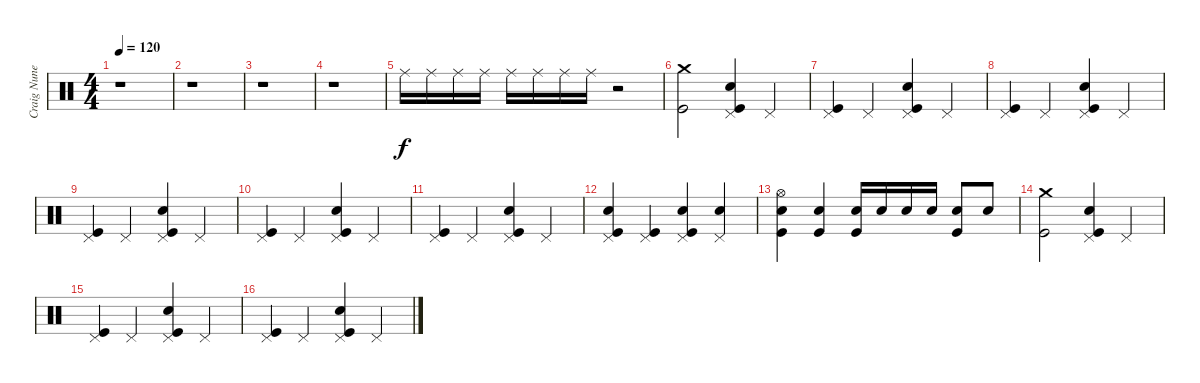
\track ("Craig Nunenmacher" "Craig Nune") {instrument percussion}
\staff {score}
\articulation defaults
\ts (4 4)
\tempo 120
\clef neutral
\ks c
r.1{dy f} |
r.1 |
r.1 |
r.1 |
"Ride (middle)".16 "Ride (middle)".16 "Ride (middle)".16 "Ride (middle)".16 "Ride (middle)".16 "Ride (middle)".16 "Ride (middle)".16 "Ride (middle)".16 r.2 |
("Crash medium (hit)" "Kick (hit)").2 ("Pedal Hi-Hat (hit)" "Snare (hit) 2" "Kick (hit)").4 "Pedal Hi-Hat (hit)".4 |
("Pedal Hi-Hat (hit)" "Kick (hit)").4 "Pedal Hi-Hat (hit)".4 ("Pedal Hi-Hat (hit)" "Snare (hit) 2" "Kick (hit)").4 "Pedal Hi-Hat (hit)".4 |
("Pedal Hi-Hat (hit)" "Kick (hit)").4 "Pedal Hi-Hat (hit)".4 ("Pedal Hi-Hat (hit)" "Snare (hit) 2" "Kick (hit)").4 "Pedal Hi-Hat (hit)".4 |
("Pedal Hi-Hat (hit)" "Kick (hit)").4 "Pedal Hi-Hat (hit)".4 ("Pedal Hi-Hat (hit)" "Snare (hit) 2" "Kick (hit)").4 "Pedal Hi-Hat (hit)".4 |
("Pedal Hi-Hat (hit)" "Kick (hit)").4 "Pedal Hi-Hat (hit)".4 ("Pedal Hi-Hat (hit)" "Snare (hit) 2" "Kick (hit)").4 "Pedal Hi-Hat (hit)".4 |
("Pedal Hi-Hat (hit)" "Kick (hit)").4 "Pedal Hi-Hat (hit)".4 ("Pedal Hi-Hat (hit)" "Snare (hit) 2" "Kick (hit)").4 "Pedal Hi-Hat (hit)".4 |
("Pedal Hi-Hat (hit)" "Snare (hit) 2" "Kick (hit)").4 ("Pedal Hi-Hat (hit)" "Kick (hit)").4 ("Pedal Hi-Hat (hit)" "Snare (hit) 2" "Kick (hit)").4 ("Pedal Hi-Hat (hit)" "Snare (hit) 2").4 |
("Hi-Hat (open)" "Snare (hit) 2" "Kick (hit)").4 ("Snare (hit) 2" "Kick (hit)").4 ("Snare (hit) 2" "Kick (hit)").16 "Snare (hit) 2".16 "Snare (hit) 2".16 "Snare (hit) 2".16 ("Snare (hit) 2" "Kick (hit)").8 "Snare (hit) 2".8 |
("Crash medium (hit)" "Kick (hit)").2 ("Pedal Hi-Hat (hit)" "Snare (hit) 2" "Kick (hit)").4 "Pedal Hi-Hat (hit)".4 |
("Pedal Hi-Hat (hit)" "Kick (hit)").4 "Pedal Hi-Hat (hit)".4 ("Pedal Hi-Hat (hit)" "Snare (hit) 2" "Kick (hit)").4 "Pedal Hi-Hat (hit)".4 |
("Pedal Hi-Hat (hit)" "Kick (hit)").4 "Pedal Hi-Hat (hit)".4 ("Pedal Hi-Hat (hit)" "Snare (hit) 2" "Kick (hit)").4 "Pedal Hi-Hat (hit)".4
